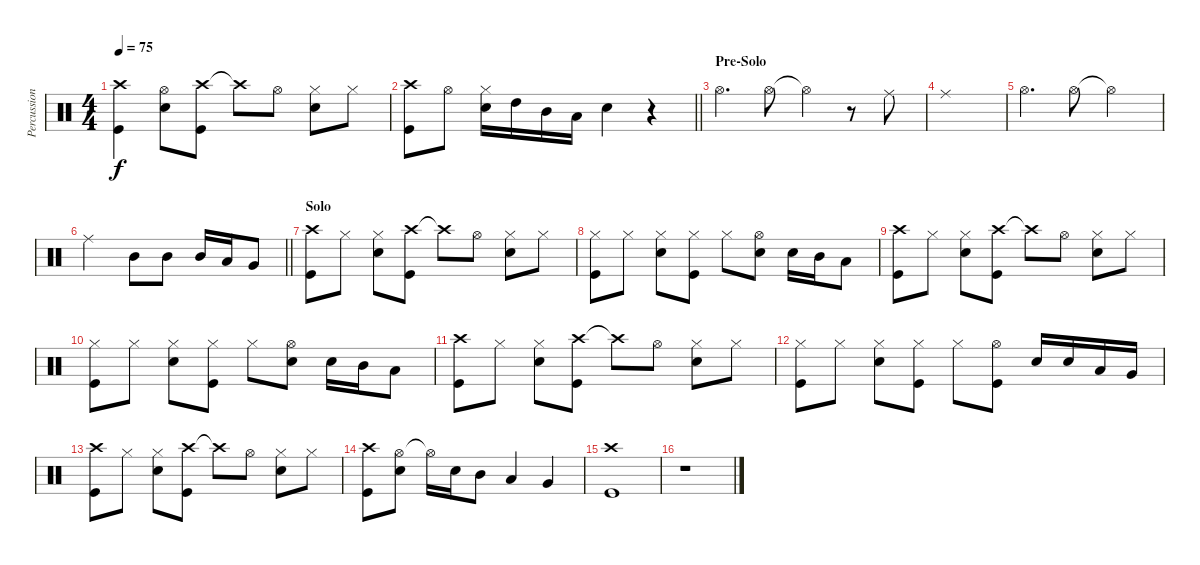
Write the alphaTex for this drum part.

\track ("Percussion 1" "Percussion") {instrument percussion}
\staff {score}
\articulation defaults
\ts (4 4)
\tempo 75
\clef neutral
\ks c
("Crash high (hit)" "Kick (hit)").4{dy f} ("Hi-Hat (open)" "Snare (hit) 2").8 ("Crash high (hit)" "Kick (hit)").8 "Crash high (hit)"{t}.8 "Hi-Hat (open)".8 ("Hi-Hat (closed)" "Snare (hit) 2").8 "Hi-Hat (closed)".8 |
\barLineRight lightlight
("Kick (hit)" "Crash high (hit)").8 "Hi-Hat (open)".8 ("Hi-Hat (closed)" "Snare (hit) 2").16 "High Tom (hit)".16 "Mid Tom (hit)".16 "Low Tom (hit)".16 "Snare (hit) 2".4 r.4 |
\section ("" "Pre-Solo")
"Hi-Hat (open)".4{d} "Hi-Hat (open)".8 "Hi-Hat (open)"{t}.4 r.8 "Ride (middle)".8 |
"Ride (middle)".1 |
"Hi-Hat (open)".4{d} "Hi-Hat (open)".8 "Hi-Hat (open)"{t}.2 |
\barLineRight lightlight "Ride (middle)".2 "Mid Tom (hit)".8 "Mid Tom (hit)".8 "Mid Tom (hit)".16 "Low Tom (hit)".16 "Very Low Tom (hit)".8
|
\section ("" "Solo")
("Crash high (hit)" "Kick (hit)").8 "Hi-Hat (closed)".8 ("Hi-Hat (closed)" "Snare (hit) 2").8 ("Crash high (hit)" "Kick (hit)").8 "Crash high (hit)"{t}.8 "Hi-Hat (open)".8 ("Hi-Hat (closed)" "Snare (hit) 2").8 "Hi-Hat (closed)".8 |
("Hi-Hat (closed)" "Kick (hit)").8 "Hi-Hat (closed)".8 ("Hi-Hat (closed)" "Snare (hit) 2").8 ("Kick (hit)" "Hi-Hat (closed)").8 "Hi-Hat (closed)".8 ("Hi-Hat (open)" "Snare (hit) 2").8 "Snare (hit) 2".16 "Mid Tom (hit)".16 "Low Tom (hit)".8 |
("Kick (hit)" "Crash high (hit)").8 "Hi-Hat (closed)".8 ("Snare (hit) 2" "Hi-Hat (closed)").8 ("Crash high (hit)" "Kick (hit)").8 "Crash high (hit)"{t}.8 "Hi-Hat (open)".8 ("Hi-Hat (closed)" "Snare (hit) 2").8 "Hi-Hat (closed)".8 |
("Hi-Hat (closed)" "Kick (hit)").8 "Hi-Hat (closed)".8 ("Hi-Hat (closed)" "Snare (hit) 2").8 ("Kick (hit)" "Hi-Hat (closed)").8 "Hi-Hat (closed)".8 ("Hi-Hat (open)" "Snare (hit) 2").8 "Snare (hit) 2".16 "Mid Tom (hit)".16 "Low Tom (hit)".8 |
("Kick (hit)" "Crash high (hit)").8 "Hi-Hat (closed)".8 ("Snare (hit) 2" "Hi-Hat (closed)").8 ("Crash high (hit)" "Kick (hit)").8 "Crash high (hit)"{t}.8 "Hi-Hat (open)".8 ("Hi-Hat (closed)" "Snare (hit) 2").8 "Hi-Hat (closed)".8 |
("Hi-Hat (closed)" "Kick (hit)").8 "Hi-Hat (closed)".8 ("Hi-Hat (closed)" "Snare (hit) 2").8 ("Hi-Hat (closed)" "Kick (hit)").8 "Hi-Hat (closed)".8 ("Hi-Hat (open)" "Kick (hit)").8 "Snare (hit) 2".16 "Snare (hit) 2".16 "Low Tom (hit)".16 "Very Low Tom (hit)".16 |
("Kick (hit)" "Crash high (hit)").8 "Hi-Hat (closed)".8 ("Snare (hit) 2" "Hi-Hat (closed)").8 ("Crash high (hit)" "Kick (hit)").8 "Crash high (hit)"{t}.8 "Hi-Hat (open)".8 ("Hi-Hat (closed)" "Snare (hit) 2").8 "Hi-Hat (closed)".8 |
("Crash high (hit)" "Kick (hit)").8 ("Hi-Hat (open)" "Snare (hit) 2").8 "Hi-Hat (open)"{t}.16 "Snare (hit) 2".16 "Mid Tom (hit)".8 "Low Tom (hit)".4 "Very Low Tom (hit)".4 |
("Crash high (hit)" "Kick (hit)").1 |
r.1
